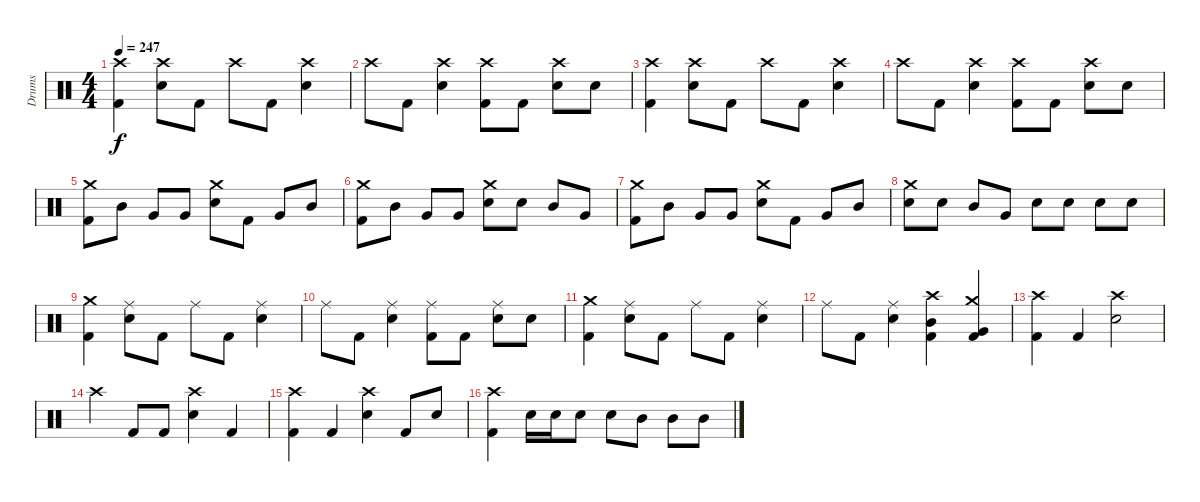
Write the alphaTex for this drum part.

\track ("Drums" "Drums") {instrument percussion}
\staff {score}
\articulation defaults
\ts (4 4)
\tempo 247
\clef neutral
\ks c
("Crash high (hit)" "Kick (hit) 2").4{dy f} ("Crash high (hit)" "Electric Snare (hit)").8 "Kick (hit) 2".8 "Crash high (hit)".8 "Kick (hit) 2".8 ("Crash high (hit)" "Electric Snare (hit)").4 |
"Crash high (hit)".8 "Kick (hit) 2".8 ("Crash high (hit)" "Electric Snare (hit)").4 ("Crash high (hit)" "Kick (hit) 2").8 "Kick (hit) 2".8 ("Crash high (hit)" "Electric Snare (hit)").8 "Electric Snare (hit)".8 |
("Crash high (hit)" "Kick (hit) 2").4 ("Crash high (hit)" "Electric Snare (hit)").8 "Kick (hit) 2".8 "Crash high (hit)".8 "Kick (hit) 2".8 ("Crash high (hit)" "Electric Snare (hit)").4 |
"Crash high (hit)".8 "Kick (hit) 2".8 ("Crash high (hit)" "Electric Snare (hit)").4 ("Crash high (hit)" "Kick (hit) 2").8 "Kick (hit) 2".8 ("Crash high (hit)" "Electric Snare (hit)").8 "Electric Snare (hit)".8 |
("Crash medium (hit)" "Kick (hit) 2").8 "Mid Tom (hit)".8 "Very Low Tom (hit)".8 "Very Low Tom (hit)".8 ("Crash medium (hit)" "Electric Snare (hit)").8 "Kick (hit) 2".8 "Very Low Tom (hit)".8 "Mid Tom (hit)".8 |
("Crash medium (hit)" "Kick (hit) 2").8 "Mid Tom (hit)".8 "Very Low Tom (hit)".8 "Very Low Tom (hit)".8 ("Crash medium (hit)" "Electric Snare (hit)").8 "Electric Snare (hit)".8 "Mid Tom (hit)".8 "Very Low Tom (hit)".8 |
("Crash medium (hit)" "Kick (hit) 2").8 "Mid Tom (hit)".8 "Very Low Tom (hit)".8 "Very Low Tom (hit)".8 ("Crash medium (hit)" "Electric Snare (hit)").8 "Kick (hit) 2".8 "Very Low Tom (hit)".8 "Mid Tom (hit)".8 |
("Crash medium (hit)" "Electric Snare (hit)").8 "Electric Snare (hit)".8 "Mid Tom (hit)".8 "Very Low Tom (hit)".8 "Electric Snare (hit)".8 "Electric Snare (hit)".8 "Electric Snare (hit)".8 "Electric Snare (hit)".8 |
("Crash medium (hit)" "Kick (hit) 2").4 ("Ride (middle)" "Electric Snare (hit)").8 "Kick (hit) 2".8 "Ride (middle)".8 "Kick (hit) 2".8 ("Ride (middle)" "Electric Snare (hit)").4 |
"Ride (middle)".8 "Kick (hit) 2".8 ("Ride (middle)" "Electric Snare (hit)").4 ("Ride (middle)" "Kick (hit) 2").8 "Kick (hit) 2".8 ("Ride (middle)" "Electric Snare (hit)").8 "Electric Snare (hit)".8 |
("Crash medium (hit)" "Kick (hit) 2").4 ("Ride (middle)" "Electric Snare (hit)").8 "Kick (hit) 2".8 "Ride (middle)".8 "Kick (hit) 2".8 ("Ride (middle)" "Electric Snare (hit)").4 |
"Ride (middle)".8 "Kick (hit) 2".8 ("Ride (middle)" "Electric Snare (hit)").4 ("Crash high (hit)" "Mid Tom (hit)" "Kick (hit) 2").4 ("Crash medium (hit)" "Very Low Tom (hit)" "Kick (hit) 2").4 |
("Crash high (hit)" "Kick (hit) 2").4 "Kick (hit) 2".4 ("Crash high (hit)" "Electric Snare (hit)").2 |
"Crash high (hit)".4 "Kick (hit) 2".8 "Kick (hit) 2".8 ("Crash high (hit)" "Electric Snare (hit)").4 "Kick (hit) 2".4 |
("Crash high (hit)" "Kick (hit) 2").4 "Kick (hit) 2".4 ("Crash high (hit)" "Electric Snare (hit)").4 "Kick (hit) 2".8 "Electric Snare (hit)".8 |
("Crash high (hit)" "Kick (hit) 2").4 "Electric Snare (hit)".16 "Electric Snare (hit)".16 "Electric Snare (hit)".8 "Electric Snare (hit)".8 "Mid Tom (hit)".8 "Mid Tom (hit)".8 "Mid Tom (hit)".8
